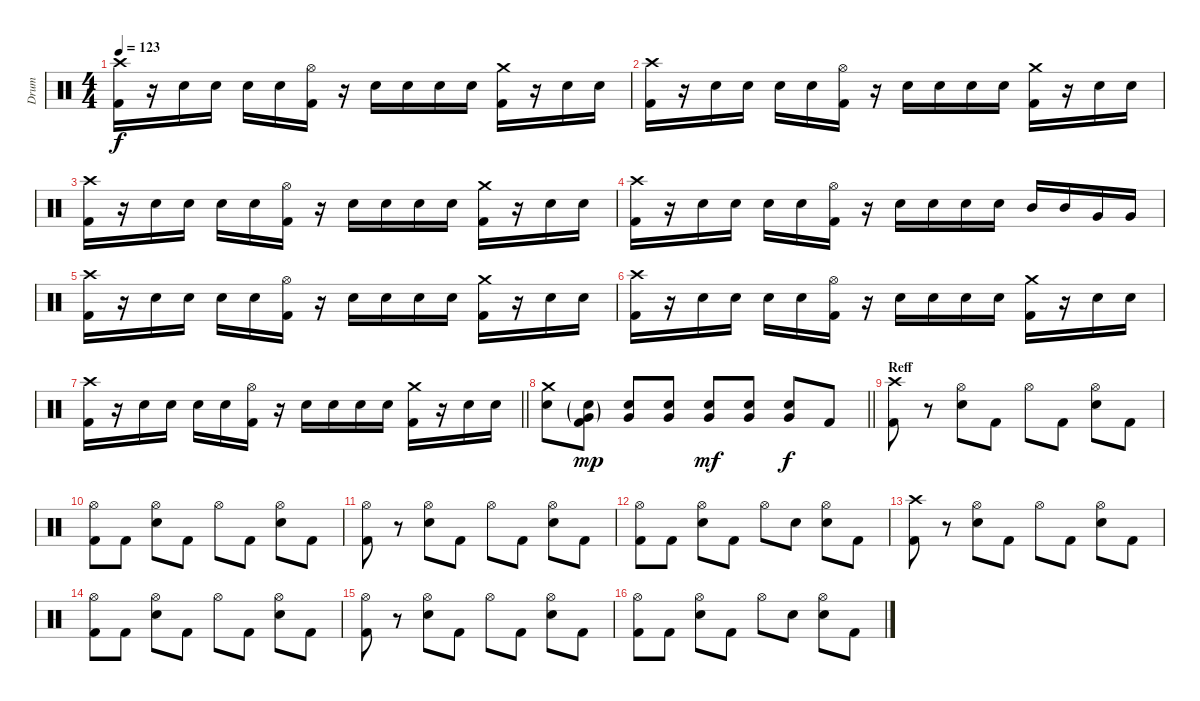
\track ("Drum" "Drum") {instrument percussion}
\staff {score}
\articulation defaults
\ts (4 4)
\tempo 123
\clef neutral
\ks c
("Crash high (hit)" "Kick (hit) 2").16{dy f} r.16 "Electric Snare (hit)".16 "Electric Snare (hit)".16 "Electric Snare (hit)".16 "Electric Snare (hit)".16 ("Hi-Hat (open)" "Kick (hit) 2").16 r.16 "Electric Snare (hit)".16 "Electric Snare (hit)".16 "Electric Snare (hit)".16 "Electric Snare (hit)".16 ("Crash medium (hit)" "Kick (hit) 2").16 r.16 "Electric Snare (hit)".16 "Electric Snare (hit)".16 |
("Crash high (hit)" "Kick (hit) 2").16 r.16 "Electric Snare (hit)".16 "Electric Snare (hit)".16 "Electric Snare (hit)".16 "Electric Snare (hit)".16 ("Hi-Hat (open)" "Kick (hit) 2").16 r.16 "Electric Snare (hit)".16 "Electric Snare (hit)".16 "Electric Snare (hit)".16 "Electric Snare (hit)".16 ("Crash medium (hit)" "Kick (hit) 2").16 r.16 "Electric Snare (hit)".16 "Electric Snare (hit)".16 |
("Crash high (hit)" "Kick (hit) 2").16 r.16 "Electric Snare (hit)".16 "Electric Snare (hit)".16 "Electric Snare (hit)".16 "Electric Snare (hit)".16 ("Hi-Hat (open)" "Kick (hit) 2").16 r.16 "Electric Snare (hit)".16 "Electric Snare (hit)".16 "Electric Snare (hit)".16 "Electric Snare (hit)".16 ("Crash medium (hit)" "Kick (hit) 2").16 r.16 "Electric Snare (hit)".16 "Electric Snare (hit)".16 |
("Crash high (hit)" "Kick (hit) 2").16 r.16 "Electric Snare (hit)".16 "Electric Snare (hit)".16 "Electric Snare (hit)".16 "Electric Snare (hit)".16 ("Hi-Hat (open)" "Kick (hit) 2").16 r.16 "Electric Snare (hit)".16 "Electric Snare (hit)".16 "Electric Snare (hit)".16 "Electric Snare (hit)".16 "Mid Tom (hit)".16 "Mid Tom (hit)".16 "Very Low Tom (hit)".16 "Very Low Tom (hit)".16 |
("Crash high (hit)" "Kick (hit) 2").16 r.16 "Electric Snare (hit)".16 "Electric Snare (hit)".16 "Electric Snare (hit)".16 "Electric Snare (hit)".16 ("Hi-Hat (open)" "Kick (hit) 2").16 r.16 "Electric Snare (hit)".16 "Electric Snare (hit)".16 "Electric Snare (hit)".16 "Electric Snare (hit)".16 ("Crash medium (hit)" "Kick (hit) 2").16 r.16 "Electric Snare (hit)".16 "Electric Snare (hit)".16 |
("Crash high (hit)" "Kick (hit) 2").16 r.16 "Electric Snare (hit)".16 "Electric Snare (hit)".16 "Electric Snare (hit)".16 "Electric Snare (hit)".16 ("Hi-Hat (open)" "Kick (hit) 2").16 r.16 "Electric Snare (hit)".16 "Electric Snare (hit)".16 "Electric Snare (hit)".16 "Electric Snare (hit)".16 ("Crash medium (hit)" "Kick (hit) 2").16 r.16 "Electric Snare (hit)".16 "Electric Snare (hit)".16 |
\barLineRight lightlight
("Crash high (hit)" "Kick (hit) 2").16 r.16 "Electric Snare (hit)".16 "Electric Snare (hit)".16 "Electric Snare (hit)".16 "Electric Snare (hit)".16 ("Hi-Hat (open)" "Kick (hit) 2").16 r.16 "Electric Snare (hit)".16 "Electric Snare (hit)".16 "Electric Snare (hit)".16 "Electric Snare (hit)".16 ("Crash medium (hit)" "Kick (hit) 2").16 r.16 "Electric Snare (hit)".16 "Electric Snare (hit)".16 |
\section ("" "")
\barLineRight lightlight
("Crash medium (hit)" "Electric Snare (hit)").8 ("Electric Snare (hit)"{g} "Very Low Tom (hit)"{g} "Kick (hit) 2").8{dy mp} ("Electric Snare (hit)" "Very Low Tom (hit)").8 ("Electric Snare (hit)" "Very Low Tom (hit)").8 ("Electric Snare (hit)" "Very Low Tom (hit)").8{dy mf} ("Electric Snare (hit)" "Very Low Tom (hit)").8 ("Electric Snare (hit)" "Very Low Tom (hit)").8{dy f} "Kick (hit) 2".8 |
\section ("" "Reff")
("Crash high (hit)" "Kick (hit) 2").8 r.8 ("Hi-Hat (open)" "Electric Snare (hit)").8 "Kick (hit) 2".8 "Hi-Hat (open)".8 "Kick (hit) 2".8 ("Hi-Hat (open)" "Electric Snare (hit)").8 "Kick (hit) 2".8 |
("Hi-Hat (open)" "Kick (hit) 2").8 "Kick (hit) 2".8 ("Hi-Hat (open)" "Electric Snare (hit)").8 "Kick (hit) 2".8 "Hi-Hat (open)".8 "Kick (hit) 2".8 ("Hi-Hat (open)" "Electric Snare (hit)").8 "Kick (hit) 2".8 |
("Hi-Hat (open)" "Kick (hit) 2").8 r.8 ("Hi-Hat (open)" "Electric Snare (hit)").8 "Kick (hit) 2".8 "Hi-Hat (open)".8 "Kick (hit) 2".8 ("Hi-Hat (open)" "Electric Snare (hit)").8 "Kick (hit) 2".8 |
("Hi-Hat (open)" "Kick (hit) 2").8 "Kick (hit) 2".8 ("Hi-Hat (open)" "Electric Snare (hit)").8 "Kick (hit) 2".8 "Hi-Hat (open)".8 "Electric Snare (hit)".8 ("Hi-Hat (open)" "Electric Snare (hit)").8 "Kick (hit) 2".8 |
("Crash high (hit)" "Kick (hit) 2").8 r.8 ("Hi-Hat (open)" "Electric Snare (hit)").8 "Kick (hit) 2".8 "Hi-Hat (open)".8 "Kick (hit) 2".8 ("Hi-Hat (open)" "Electric Snare (hit)").8 "Kick (hit) 2".8 |
("Hi-Hat (open)" "Kick (hit) 2").8 "Kick (hit) 2".8 ("Hi-Hat (open)" "Electric Snare (hit)").8 "Kick (hit) 2".8 "Hi-Hat (open)".8 "Kick (hit) 2".8 ("Hi-Hat (open)" "Electric Snare (hit)").8 "Kick (hit) 2".8 |
("Hi-Hat (open)" "Kick (hit) 2").8 r.8 ("Hi-Hat (open)" "Electric Snare (hit)").8 "Kick (hit) 2".8 "Hi-Hat (open)".8 "Kick (hit) 2".8 ("Hi-Hat (open)" "Electric Snare (hit)").8 "Kick (hit) 2".8 |
("Hi-Hat (open)" "Kick (hit) 2").8 "Kick (hit) 2".8 ("Hi-Hat (open)" "Electric Snare (hit)").8 "Kick (hit) 2".8 "Hi-Hat (open)".8 "Electric Snare (hit)".8 ("Hi-Hat (open)" "Electric Snare (hit)").8 "Kick (hit) 2".8
